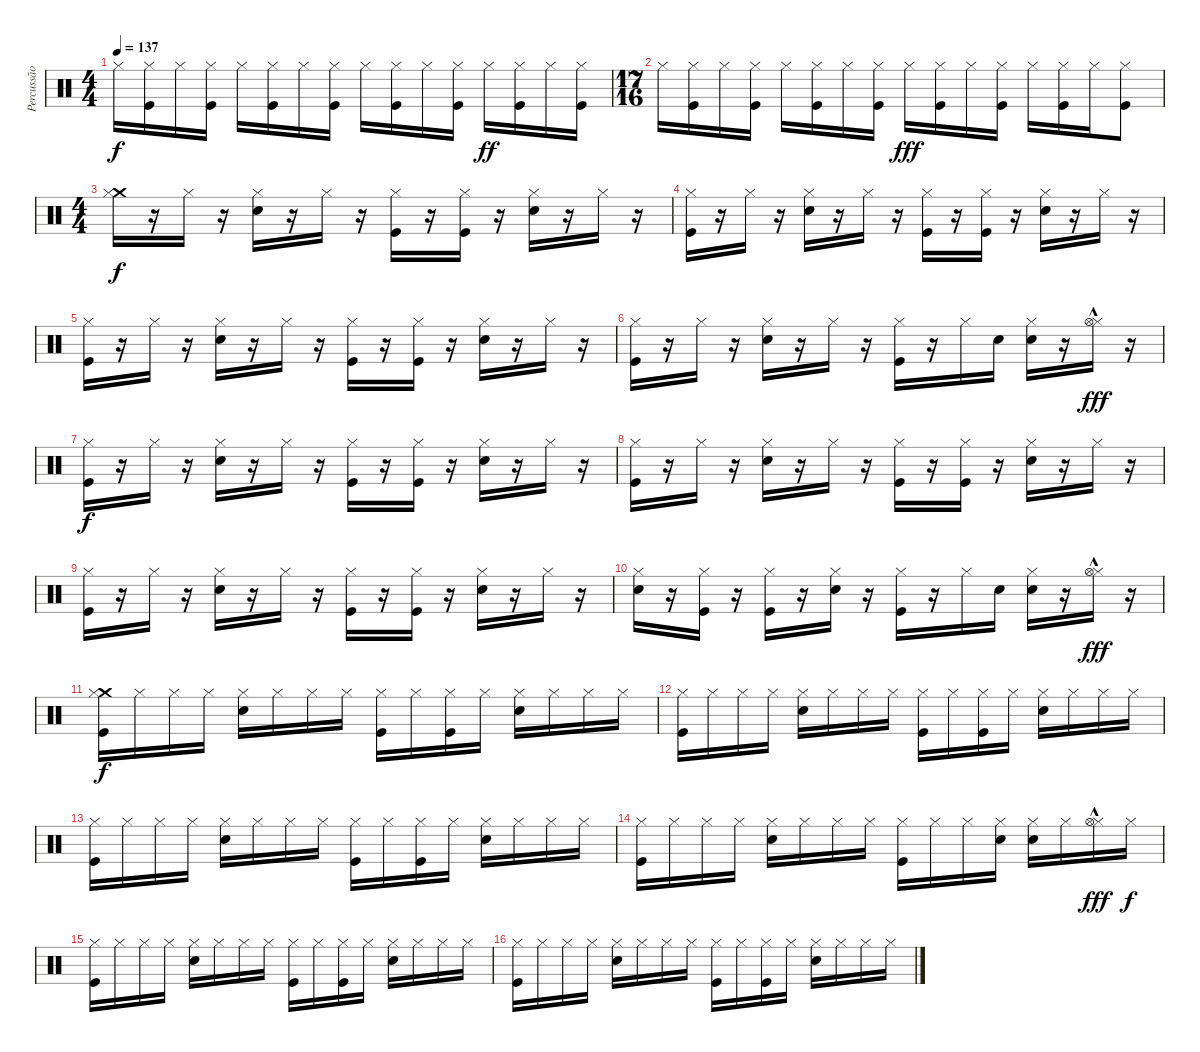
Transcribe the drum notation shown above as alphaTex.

\track ("Percussão" "Percussão") {instrument percussion}
\staff {score}
\articulation defaults
\ts (4 4)
\tempo 137
\clef neutral
\ks c "Hi-Hat (closed)".16{dy f}
("Hi-Hat (closed)" "Kick (hit)").16 "Hi-Hat (closed)".16 ("Hi-Hat (closed)" "Kick (hit)").16 "Hi-Hat (closed)".16 ("Hi-Hat (closed)" "Kick (hit)").16 "Hi-Hat (closed)".16 ("Hi-Hat (closed)" "Kick (hit)").16 "Hi-Hat (closed)".16 ("Hi-Hat (closed)" "Kick (hit)").16 "Hi-Hat (closed)".16 ("Hi-Hat (closed)" "Kick (hit)").16 "Hi-Hat (closed)".16{dy ff} ("Hi-Hat (closed)" "Kick (hit)").16 "Hi-Hat (closed)".16 ("Hi-Hat (closed)" "Kick (hit)").16 |
\ts (17 16)
"Hi-Hat (closed)".16 ("Hi-Hat (closed)" "Kick (hit)").16 "Hi-Hat (closed)".16 ("Hi-Hat (closed)" "Kick (hit)").16 "Hi-Hat (closed)".16 ("Hi-Hat (closed)" "Kick (hit)").16 "Hi-Hat (closed)".16 ("Hi-Hat (closed)" "Kick (hit)").16 "Hi-Hat (closed)".16{dy fff} ("Hi-Hat (closed)" "Kick (hit)").16 "Hi-Hat (closed)".16 ("Hi-Hat (closed)" "Kick (hit)").16 "Hi-Hat (closed)".16 ("Hi-Hat (closed)" "Kick (hit)").16 "Hi-Hat (closed)".16 ("Hi-Hat (closed)" "Kick (hit)").8 |
\ts (4 4)
("Crash medium (hit)" "Hi-Hat (closed)").16{dy f volume 13} r.16 "Hi-Hat (closed)".16 r.16 ("Hi-Hat (closed)" "Snare (hit) 2").16 r.16 "Hi-Hat (closed)".16 r.16 ("Hi-Hat (closed)" "Kick (hit)").16 r.16 ("Hi-Hat (closed)" "Kick (hit)").16 r.16 ("Snare (hit) 2" "Hi-Hat (closed)").16 r.16 "Hi-Hat (closed)".16 r.16 |
("Kick (hit)" "Hi-Hat (closed)").16 r.16 "Hi-Hat (closed)".16 r.16 ("Hi-Hat (closed)" "Snare (hit) 2").16 r.16 "Hi-Hat (closed)".16 r.16 ("Hi-Hat (closed)" "Kick (hit)").16 r.16 ("Hi-Hat (closed)" "Kick (hit)").16 r.16 ("Snare (hit) 2" "Hi-Hat (closed)").16 r.16 "Hi-Hat (closed)".16 r.16 |
("Kick (hit)" "Hi-Hat (closed)").16 r.16 "Hi-Hat (closed)".16 r.16 ("Hi-Hat (closed)" "Snare (hit) 2").16 r.16 "Hi-Hat (closed)".16 r.16 ("Hi-Hat (closed)" "Kick (hit)").16 r.16 ("Hi-Hat (closed)" "Kick (hit)").16 r.16 ("Snare (hit) 2" "Hi-Hat (closed)").16 r.16 "Hi-Hat (closed)".16 r.16 |
("Kick (hit)" "Hi-Hat (closed)").16 r.16 "Hi-Hat (closed)".16 r.16 ("Hi-Hat (closed)" "Snare (hit) 2").16 r.16 "Hi-Hat (closed)".16 r.16 ("Hi-Hat (closed)" "Kick (hit)").16 r.16 "Hi-Hat (closed)".16 "Snare (hit) 2".16 ("Snare (hit) 2" "Hi-Hat (closed)").16 r.16 ("Hi-Hat (closed)"{hac} "Hi-Hat (open)").16{dy fff} r.16 |
("Kick (hit)" "Hi-Hat (closed)").16{dy f} r.16 "Hi-Hat (closed)".16 r.16 ("Hi-Hat (closed)" "Snare (hit) 2").16 r.16 "Hi-Hat (closed)".16 r.16 ("Hi-Hat (closed)" "Kick (hit)").16 r.16 ("Hi-Hat (closed)" "Kick (hit)").16 r.16 ("Snare (hit) 2" "Hi-Hat (closed)").16 r.16 "Hi-Hat (closed)".16 r.16 |
("Kick (hit)" "Hi-Hat (closed)").16 r.16 "Hi-Hat (closed)".16 r.16 ("Hi-Hat (closed)" "Snare (hit) 2").16 r.16 "Hi-Hat (closed)".16 r.16 ("Hi-Hat (closed)" "Kick (hit)").16 r.16 ("Hi-Hat (closed)" "Kick (hit)").16 r.16 ("Snare (hit) 2" "Hi-Hat (closed)").16 r.16 "Hi-Hat (closed)".16 r.16 |
("Kick (hit)" "Hi-Hat (closed)").16 r.16 "Hi-Hat (closed)".16 r.16 ("Hi-Hat (closed)" "Snare (hit) 2").16 r.16 "Hi-Hat (closed)".16 r.16 ("Hi-Hat (closed)" "Kick (hit)").16 r.16 ("Hi-Hat (closed)" "Kick (hit)").16 r.16 ("Snare (hit) 2" "Hi-Hat (closed)").16 r.16 "Hi-Hat (closed)".16 r.16 |
("Snare (hit) 2" "Hi-Hat (closed)").16 r.16 ("Hi-Hat (closed)" "Kick (hit)").16 r.16 ("Hi-Hat (closed)" "Kick (hit)").16 r.16 ("Snare (hit) 2" "Hi-Hat (closed)").16 r.16 ("Hi-Hat (closed)" "Kick (hit)").16 r.16 "Hi-Hat (closed)".16 "Snare (hit) 2".16 ("Snare (hit) 2" "Hi-Hat (closed)").16 r.16 ("Hi-Hat (closed)"{hac} "Hi-Hat (open)").16{dy fff} r.16 |
("Kick (hit)" "Crash medium (hit)" "Hi-Hat (closed)").16{dy f} "Hi-Hat (closed)".16 "Hi-Hat (closed)".16 "Hi-Hat (closed)".16 ("Hi-Hat (closed)" "Snare (hit) 2").16 "Hi-Hat (closed)".16 "Hi-Hat (closed)".16 "Hi-Hat (closed)".16 ("Hi-Hat (closed)" "Kick (hit)").16 "Hi-Hat (closed)".16 ("Hi-Hat (closed)" "Kick (hit)").16 "Hi-Hat (closed)".16 ("Snare (hit) 2" "Hi-Hat (closed)").16 "Hi-Hat (closed)".16 "Hi-Hat (closed)".16 "Hi-Hat (closed)".16 |
("Kick (hit)" "Hi-Hat (closed)").16 "Hi-Hat (closed)".16 "Hi-Hat (closed)".16 "Hi-Hat (closed)".16 ("Hi-Hat (closed)" "Snare (hit) 2").16 "Hi-Hat (closed)".16 "Hi-Hat (closed)".16 "Hi-Hat (closed)".16 ("Hi-Hat (closed)" "Kick (hit)").16 "Hi-Hat (closed)".16 ("Hi-Hat (closed)" "Kick (hit)").16 "Hi-Hat (closed)".16 ("Snare (hit) 2" "Hi-Hat (closed)").16 "Hi-Hat (closed)".16 "Hi-Hat (closed)".16 "Hi-Hat (closed)".16 |
("Kick (hit)" "Hi-Hat (closed)").16 "Hi-Hat (closed)".16 "Hi-Hat (closed)".16 "Hi-Hat (closed)".16 ("Hi-Hat (closed)" "Snare (hit) 2").16 "Hi-Hat (closed)".16 "Hi-Hat (closed)".16 "Hi-Hat (closed)".16 ("Hi-Hat (closed)" "Kick (hit)").16 "Hi-Hat (closed)".16 ("Hi-Hat (closed)" "Kick (hit)").16 "Hi-Hat (closed)".16 ("Snare (hit) 2" "Hi-Hat (closed)").16 "Hi-Hat (closed)".16 "Hi-Hat (closed)".16 "Hi-Hat (closed)".16 |
("Kick (hit)" "Hi-Hat (closed)").16 "Hi-Hat (closed)".16 "Hi-Hat (closed)".16 "Hi-Hat (closed)".16 ("Hi-Hat (closed)" "Snare (hit) 2").16 "Hi-Hat (closed)".16 "Hi-Hat (closed)".16 "Hi-Hat (closed)".16 ("Hi-Hat (closed)" "Kick (hit)").16 "Hi-Hat (closed)".16 "Hi-Hat (closed)".16 ("Snare (hit) 2" "Hi-Hat (closed)").16 ("Snare (hit) 2" "Hi-Hat (closed)").16 "Hi-Hat (closed)".16 ("Hi-Hat (closed)"{hac} "Hi-Hat (open)").16{dy fff} "Hi-Hat (closed)".16{dy f} |
("Kick (hit)" "Hi-Hat (closed)").16 "Hi-Hat (closed)".16 "Hi-Hat (closed)".16 "Hi-Hat (closed)".16 ("Hi-Hat (closed)" "Snare (hit) 2").16 "Hi-Hat (closed)".16 "Hi-Hat (closed)".16 "Hi-Hat (closed)".16 ("Hi-Hat (closed)" "Kick (hit)").16 "Hi-Hat (closed)".16 ("Hi-Hat (closed)" "Kick (hit)").16 "Hi-Hat (closed)".16 ("Snare (hit) 2" "Hi-Hat (closed)").16 "Hi-Hat (closed)".16 "Hi-Hat (closed)".16 "Hi-Hat (closed)".16 |
("Kick (hit)" "Hi-Hat (closed)").16 "Hi-Hat (closed)".16 "Hi-Hat (closed)".16 "Hi-Hat (closed)".16 ("Hi-Hat (closed)" "Snare (hit) 2").16 "Hi-Hat (closed)".16 "Hi-Hat (closed)".16 "Hi-Hat (closed)".16 ("Hi-Hat (closed)" "Kick (hit)").16 "Hi-Hat (closed)".16 ("Hi-Hat (closed)" "Kick (hit)").16 "Hi-Hat (closed)".16 ("Snare (hit) 2" "Hi-Hat (closed)").16 "Hi-Hat (closed)".16 "Hi-Hat (closed)".16 "Hi-Hat (closed)".16
